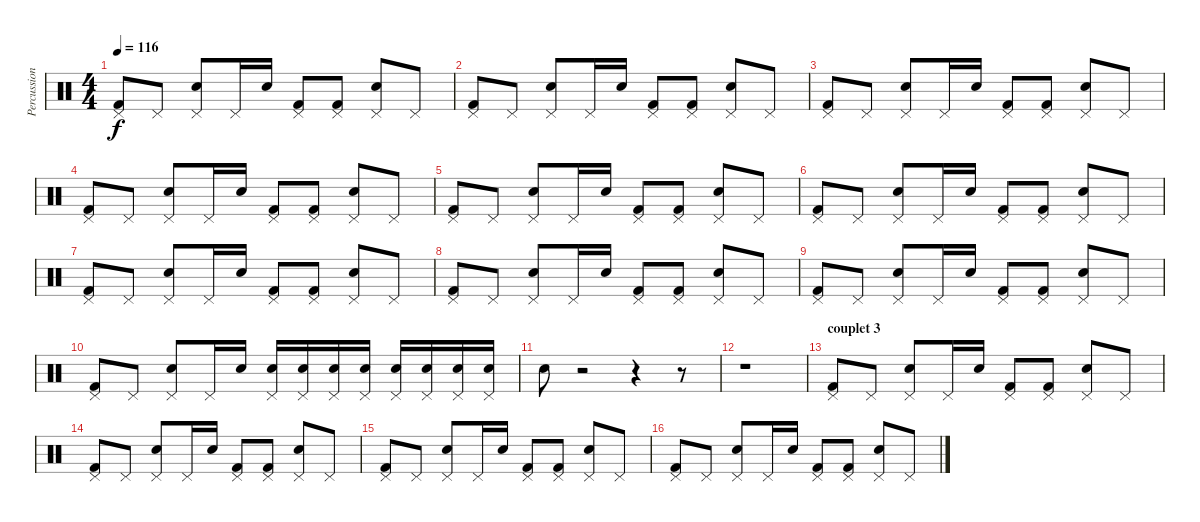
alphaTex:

\track ("Percussions" "Percussion") {instrument percussion}
\staff {score}
\articulation defaults
\ts (4 4)
\tempo 116
\clef neutral
\ks c
("Pedal Hi-Hat (hit)" "Kick (hit) 2").8{dy f} "Pedal Hi-Hat (hit)".8 ("Pedal Hi-Hat (hit)" "Electric Snare (hit)").8 "Pedal Hi-Hat (hit)".16 "Electric Snare (hit)".16 ("Pedal Hi-Hat (hit)" "Kick (hit) 2").8 ("Pedal Hi-Hat (hit)" "Kick (hit) 2").8 ("Pedal Hi-Hat (hit)" "Electric Snare (hit)").8 "Pedal Hi-Hat (hit)".8 |
("Pedal Hi-Hat (hit)" "Kick (hit) 2").8 "Pedal Hi-Hat (hit)".8 ("Pedal Hi-Hat (hit)" "Electric Snare (hit)").8 "Pedal Hi-Hat (hit)".16 "Electric Snare (hit)".16 ("Pedal Hi-Hat (hit)" "Kick (hit) 2").8 ("Pedal Hi-Hat (hit)" "Kick (hit) 2").8 ("Pedal Hi-Hat (hit)" "Electric Snare (hit)").8 "Pedal Hi-Hat (hit)".8 |
("Pedal Hi-Hat (hit)" "Kick (hit) 2").8 "Pedal Hi-Hat (hit)".8 ("Pedal Hi-Hat (hit)" "Electric Snare (hit)").8 "Pedal Hi-Hat (hit)".16 "Electric Snare (hit)".16 ("Pedal Hi-Hat (hit)" "Kick (hit) 2").8 ("Pedal Hi-Hat (hit)" "Kick (hit) 2").8 ("Pedal Hi-Hat (hit)" "Electric Snare (hit)").8 "Pedal Hi-Hat (hit)".8 |
("Pedal Hi-Hat (hit)" "Kick (hit) 2").8 "Pedal Hi-Hat (hit)".8 ("Pedal Hi-Hat (hit)" "Electric Snare (hit)").8 "Pedal Hi-Hat (hit)".16 "Electric Snare (hit)".16 ("Pedal Hi-Hat (hit)" "Kick (hit) 2").8 ("Pedal Hi-Hat (hit)" "Kick (hit) 2").8 ("Pedal Hi-Hat (hit)" "Electric Snare (hit)").8 "Pedal Hi-Hat (hit)".8 |
("Pedal Hi-Hat (hit)" "Kick (hit) 2").8 "Pedal Hi-Hat (hit)".8 ("Pedal Hi-Hat (hit)" "Electric Snare (hit)").8 "Pedal Hi-Hat (hit)".16 "Electric Snare (hit)".16 ("Pedal Hi-Hat (hit)" "Kick (hit) 2").8 ("Pedal Hi-Hat (hit)" "Kick (hit) 2").8 ("Pedal Hi-Hat (hit)" "Electric Snare (hit)").8 "Pedal Hi-Hat (hit)".8 |
("Pedal Hi-Hat (hit)" "Kick (hit) 2").8 "Pedal Hi-Hat (hit)".8 ("Pedal Hi-Hat (hit)" "Electric Snare (hit)").8 "Pedal Hi-Hat (hit)".16 "Electric Snare (hit)".16 ("Pedal Hi-Hat (hit)" "Kick (hit) 2").8 ("Pedal Hi-Hat (hit)" "Kick (hit) 2").8 ("Pedal Hi-Hat (hit)" "Electric Snare (hit)").8 "Pedal Hi-Hat (hit)".8 |
("Pedal Hi-Hat (hit)" "Kick (hit) 2").8 "Pedal Hi-Hat (hit)".8 ("Pedal Hi-Hat (hit)" "Electric Snare (hit)").8 "Pedal Hi-Hat (hit)".16 "Electric Snare (hit)".16 ("Pedal Hi-Hat (hit)" "Kick (hit) 2").8 ("Pedal Hi-Hat (hit)" "Kick (hit) 2").8 ("Pedal Hi-Hat (hit)" "Electric Snare (hit)").8 "Pedal Hi-Hat (hit)".8 |
("Pedal Hi-Hat (hit)" "Kick (hit) 2").8 "Pedal Hi-Hat (hit)".8 ("Pedal Hi-Hat (hit)" "Electric Snare (hit)").8 "Pedal Hi-Hat (hit)".16 "Electric Snare (hit)".16 ("Pedal Hi-Hat (hit)" "Kick (hit) 2").8 ("Pedal Hi-Hat (hit)" "Kick (hit) 2").8 ("Pedal Hi-Hat (hit)" "Electric Snare (hit)").8 "Pedal Hi-Hat (hit)".8 |
("Pedal Hi-Hat (hit)" "Kick (hit) 2").8 "Pedal Hi-Hat (hit)".8 ("Pedal Hi-Hat (hit)" "Electric Snare (hit)").8 "Pedal Hi-Hat (hit)".16 "Electric Snare (hit)".16 ("Pedal Hi-Hat (hit)" "Kick (hit) 2").8 ("Pedal Hi-Hat (hit)" "Kick (hit) 2").8 ("Pedal Hi-Hat (hit)" "Electric Snare (hit)").8 "Pedal Hi-Hat (hit)".8 |
("Pedal Hi-Hat (hit)" "Kick (hit) 2").8 "Pedal Hi-Hat (hit)".8 ("Pedal Hi-Hat (hit)" "Electric Snare (hit)").8 "Pedal Hi-Hat (hit)".16 "Electric Snare (hit)".16 ("Pedal Hi-Hat (hit)" "Electric Snare (hit)").16 ("Pedal Hi-Hat (hit)" "Electric Snare (hit)").16 ("Pedal Hi-Hat (hit)" "Electric Snare (hit)").16 ("Pedal Hi-Hat (hit)" "Electric Snare (hit)").16 ("Pedal Hi-Hat (hit)" "Electric Snare (hit)").16 ("Pedal Hi-Hat (hit)" "Electric Snare (hit)").16 ("Pedal Hi-Hat (hit)" "Electric Snare (hit)").16 ("Pedal Hi-Hat (hit)" "Electric Snare (hit)").16 |
"Electric Snare (hit)".8 r.2 r.4 r.8 |
r.1 |
\section ("" "couplet 3")
("Pedal Hi-Hat (hit)" "Kick (hit) 2").8 "Pedal Hi-Hat (hit)".8 ("Pedal Hi-Hat (hit)" "Electric Snare (hit)").8 "Pedal Hi-Hat (hit)".16 "Electric Snare (hit)".16 ("Pedal Hi-Hat (hit)" "Kick (hit) 2").8 ("Pedal Hi-Hat (hit)" "Kick (hit) 2").8 ("Pedal Hi-Hat (hit)" "Electric Snare (hit)").8 "Pedal Hi-Hat (hit)".8 |
("Pedal Hi-Hat (hit)" "Kick (hit) 2").8 "Pedal Hi-Hat (hit)".8 ("Pedal Hi-Hat (hit)" "Electric Snare (hit)").8 "Pedal Hi-Hat (hit)".16 "Electric Snare (hit)".16 ("Pedal Hi-Hat (hit)" "Kick (hit) 2").8 ("Pedal Hi-Hat (hit)" "Kick (hit) 2").8 ("Pedal Hi-Hat (hit)" "Electric Snare (hit)").8 "Pedal Hi-Hat (hit)".8 |
("Pedal Hi-Hat (hit)" "Kick (hit) 2").8 "Pedal Hi-Hat (hit)".8 ("Pedal Hi-Hat (hit)" "Electric Snare (hit)").8 "Pedal Hi-Hat (hit)".16 "Electric Snare (hit)".16 ("Pedal Hi-Hat (hit)" "Kick (hit) 2").8 ("Pedal Hi-Hat (hit)" "Kick (hit) 2").8 ("Pedal Hi-Hat (hit)" "Electric Snare (hit)").8 "Pedal Hi-Hat (hit)".8 |
("Pedal Hi-Hat (hit)" "Kick (hit) 2").8 "Pedal Hi-Hat (hit)".8 ("Pedal Hi-Hat (hit)" "Electric Snare (hit)").8 "Pedal Hi-Hat (hit)".16 "Electric Snare (hit)".16 ("Pedal Hi-Hat (hit)" "Kick (hit) 2").8 ("Pedal Hi-Hat (hit)" "Kick (hit) 2").8 ("Pedal Hi-Hat (hit)" "Electric Snare (hit)").8 "Pedal Hi-Hat (hit)".8
